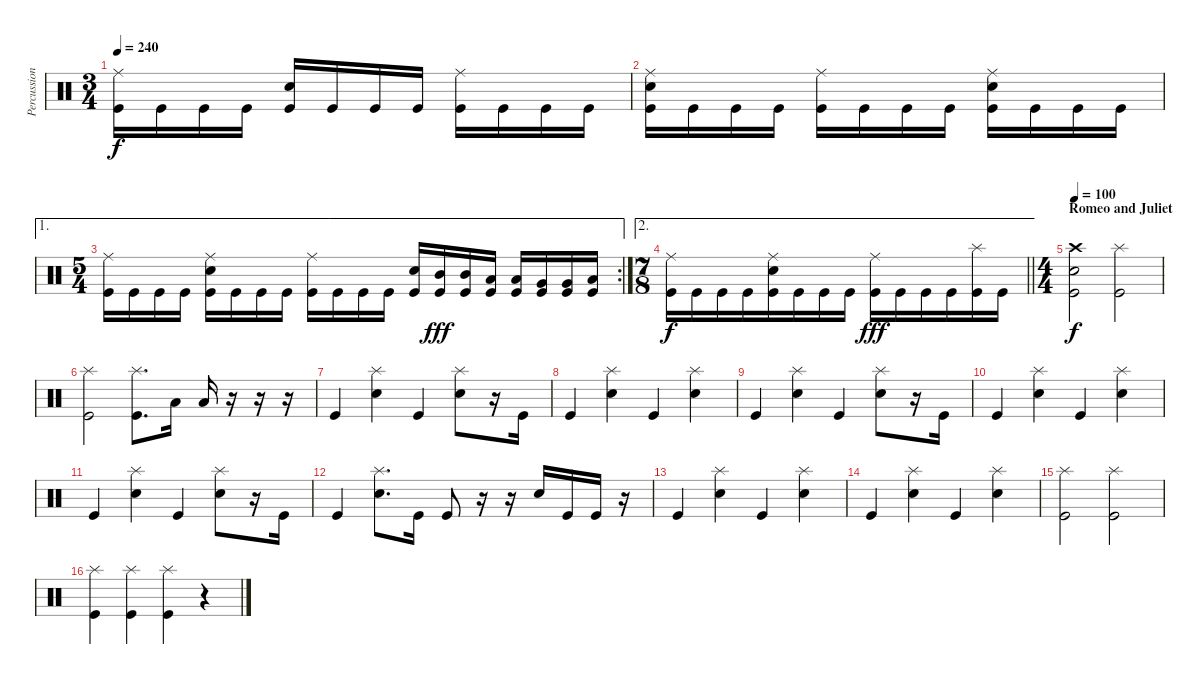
\track ("Percussion" "Percussion") {instrument percussion}
\staff {score}
\articulation defaults
\ts (3 4)
\tempo 240
\clef neutral
\ks c
("Ride (middle)" "Kick (hit)").16{dy f} "Kick (hit)".16 "Kick (hit)".16 "Kick (hit)".16 ("Snare (hit) 2" "Kick (hit)").16 "Kick (hit)".16 "Kick (hit)".16 "Kick (hit)".16 ("Ride (middle)" "Kick (hit)").16 "Kick (hit)".16 "Kick (hit)".16 "Kick (hit)".16 |
("Ride (middle)" "Snare (hit) 2" "Kick (hit)").16 "Kick (hit)".16 "Kick (hit)".16 "Kick (hit)".16 ("Ride (middle)" "Kick (hit)").16 "Kick (hit)".16 "Kick (hit)".16 "Kick (hit)".16 ("Ride (middle)" "Snare (hit) 2" "Kick (hit)").16 "Kick (hit)".16 "Kick (hit)".16 "Kick (hit)".16 |
\ae 1
\rc 2
\ts (5 4)
("Ride (middle)" "Kick (hit)").16 "Kick (hit)".16 "Kick (hit)".16 "Kick (hit)".16 ("Ride (middle)" "Snare (hit) 2" "Kick (hit)").16 "Kick (hit)".16 "Kick (hit)".16 "Kick (hit)".16 ("Ride (middle)" "Kick (hit)").16 "Kick (hit)".16 "Kick (hit)".16 "Kick (hit)".16 ("Snare (hit) 2" "Kick (hit)").16 ("Mid Tom (hit)" "Kick (hit)").16{dy fff} ("Mid Tom (hit)" "Kick (hit)").16 ("Low Tom (hit)" "Kick (hit)").16 ("Low Tom (hit)" "Kick (hit)").16 ("Very Low Tom (hit)" "Kick (hit)").16 ("Very Low Tom (hit)" "Kick (hit)").16 ("Low Floor Tom (hit)" "Kick (hit)").16 |
\ae 2
\ts (7 8)
\barLineRight lightlight
("Ride (middle)" "Kick (hit)").16{dy f} "Kick (hit)".16 "Kick (hit)".16 "Kick (hit)".16 ("Ride (middle)" "Snare (hit) 2" "Kick (hit)").16 "Kick (hit)".16 "Kick (hit)".16 "Kick (hit)".16 ("Ride (middle)" "Kick (hit)").16{dy fff} "Kick (hit)".16 "Kick (hit)".16 "Kick (hit)".16 ("Splash (hit)" "Kick (hit)").16 "Kick (hit)".16 |
\ts (4 4)
\section ("" "Romeo and Juliet")
\tempo 100
("Kick (hit)" "Crash high (hit)" "Snare (hit) 2").2{dy f} ("Splash (hit)" "Kick (hit)").2 |
("Splash (hit)" "Kick (hit)").2 ("Splash (hit)" "Kick (hit)").8{d} "Low Tom (hit)".16 "Low Tom (hit)".16 r.16 r.16 r.16 |
"Kick (hit)".4 ("Splash (hit)" "Snare (hit) 2").4 "Kick (hit)".4 ("Splash (hit)" "Snare (hit) 2").8 r.16 "Kick (hit)".16 |
"Kick (hit)".4 ("Splash (hit)" "Snare (hit) 2").4 "Kick (hit)".4 ("Splash (hit)" "Snare (hit) 2").4 |
"Kick (hit)".4 ("Splash (hit)" "Snare (hit) 2").4 "Kick (hit)".4 ("Splash (hit)" "Snare (hit) 2").8 r.16 "Kick (hit)".16 |
"Kick (hit)".4 ("Splash (hit)" "Snare (hit) 2").4 "Kick (hit)".4 ("Splash (hit)" "Snare (hit) 2").4 |
"Kick (hit)".4 ("Splash (hit)" "Snare (hit) 2").4 "Kick (hit)".4 ("Splash (hit)" "Snare (hit) 2").8 r.16 "Kick (hit)".16 |
"Kick (hit)".4 ("Splash (hit)" "Snare (hit) 2").8{d} "Kick (hit)".16 "Kick (hit)".8 r.16 r.16 "Snare (hit) 2".16 "Kick (hit)".16 "Kick (hit)".16 r.16 |
"Kick (hit)".4 ("Splash (hit)" "Snare (hit) 2").4 "Kick (hit)".4 ("Splash (hit)" "Snare (hit) 2").4 |
"Kick (hit)".4 ("Splash (hit)" "Snare (hit) 2").4 "Kick (hit)".4 ("Splash (hit)" "Snare (hit) 2").4 |
("Splash (hit)" "Kick (hit)").2 ("Splash (hit)" "Kick (hit)").2 |
("Splash (hit)" "Kick (hit)").4 ("Splash (hit)" "Kick (hit)").4 ("Splash (hit)" "Kick (hit)").4 r.4
